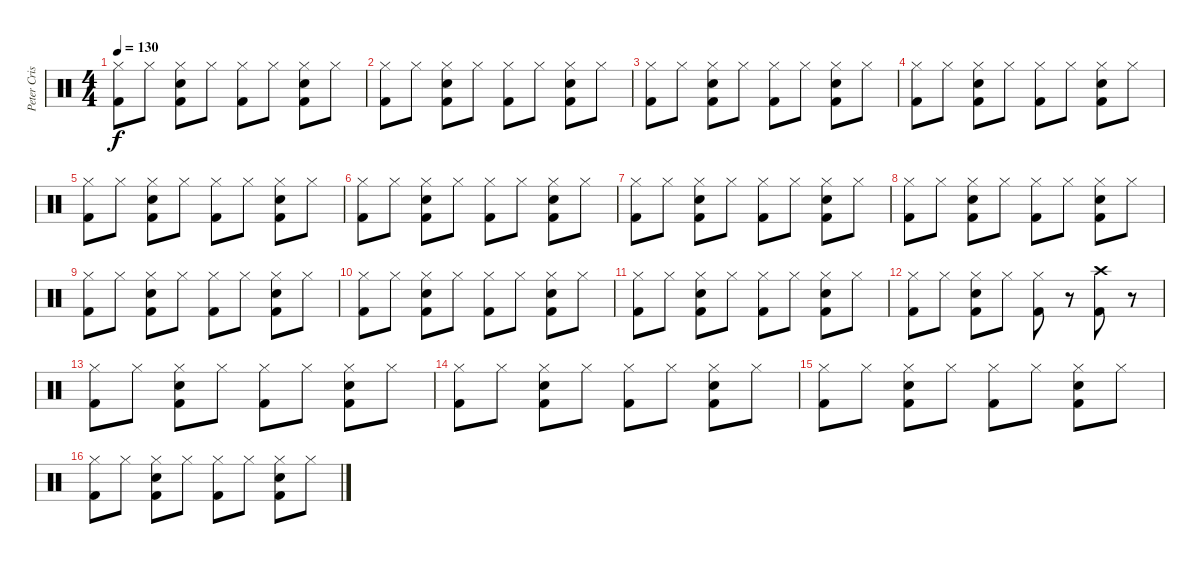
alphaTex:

\track ("Peter Criss" "Peter Cris") {instrument percussion}
\staff {score}
\articulation defaults
\ts (4 4)
\tempo 130
\clef neutral
\ks c
("Hi-Hat (closed)" "Kick (hit) 2").8{dy f} "Hi-Hat (closed)".8 ("Hi-Hat (closed)" "Electric Snare (hit)" "Kick (hit) 2").8 "Hi-Hat (closed)".8 ("Hi-Hat (closed)" "Kick (hit) 2").8 "Hi-Hat (closed)".8 ("Hi-Hat (closed)" "Electric Snare (hit)" "Kick (hit) 2").8 "Hi-Hat (closed)".8 |
("Hi-Hat (closed)" "Kick (hit) 2").8 "Hi-Hat (closed)".8 ("Hi-Hat (closed)" "Electric Snare (hit)" "Kick (hit) 2").8 "Hi-Hat (closed)".8 ("Hi-Hat (closed)" "Kick (hit) 2").8 "Hi-Hat (closed)".8 ("Hi-Hat (closed)" "Electric Snare (hit)" "Kick (hit) 2").8 "Hi-Hat (closed)".8 |
("Hi-Hat (closed)" "Kick (hit) 2").8 "Hi-Hat (closed)".8 ("Hi-Hat (closed)" "Electric Snare (hit)" "Kick (hit) 2").8 "Hi-Hat (closed)".8 ("Hi-Hat (closed)" "Kick (hit) 2").8 "Hi-Hat (closed)".8 ("Hi-Hat (closed)" "Electric Snare (hit)" "Kick (hit) 2").8 "Hi-Hat (closed)".8 |
("Hi-Hat (closed)" "Kick (hit) 2").8 "Hi-Hat (closed)".8 ("Hi-Hat (closed)" "Electric Snare (hit)" "Kick (hit) 2").8 "Hi-Hat (closed)".8 ("Hi-Hat (closed)" "Kick (hit) 2").8 "Hi-Hat (closed)".8 ("Hi-Hat (closed)" "Electric Snare (hit)" "Kick (hit) 2").8 "Hi-Hat (closed)".8 |
("Hi-Hat (closed)" "Kick (hit) 2").8 "Hi-Hat (closed)".8 ("Hi-Hat (closed)" "Electric Snare (hit)" "Kick (hit) 2").8 "Hi-Hat (closed)".8 ("Hi-Hat (closed)" "Kick (hit) 2").8 "Hi-Hat (closed)".8 ("Hi-Hat (closed)" "Electric Snare (hit)" "Kick (hit) 2").8 "Hi-Hat (closed)".8 |
("Hi-Hat (closed)" "Kick (hit) 2").8 "Hi-Hat (closed)".8 ("Hi-Hat (closed)" "Electric Snare (hit)" "Kick (hit) 2").8 "Hi-Hat (closed)".8 ("Hi-Hat (closed)" "Kick (hit) 2").8 "Hi-Hat (closed)".8 ("Hi-Hat (closed)" "Electric Snare (hit)" "Kick (hit) 2").8 "Hi-Hat (closed)".8 |
("Hi-Hat (closed)" "Kick (hit) 2").8 "Hi-Hat (closed)".8 ("Hi-Hat (closed)" "Electric Snare (hit)" "Kick (hit) 2").8 "Hi-Hat (closed)".8 ("Hi-Hat (closed)" "Kick (hit) 2").8 "Hi-Hat (closed)".8 ("Hi-Hat (closed)" "Electric Snare (hit)" "Kick (hit) 2").8 "Hi-Hat (closed)".8 |
("Hi-Hat (closed)" "Kick (hit) 2").8 "Hi-Hat (closed)".8 ("Hi-Hat (closed)" "Electric Snare (hit)" "Kick (hit) 2").8 "Hi-Hat (closed)".8 ("Hi-Hat (closed)" "Kick (hit) 2").8 "Hi-Hat (closed)".8 ("Hi-Hat (closed)" "Electric Snare (hit)" "Kick (hit) 2").8 "Hi-Hat (closed)".8 |
("Hi-Hat (closed)" "Kick (hit) 2").8 "Hi-Hat (closed)".8 ("Hi-Hat (closed)" "Electric Snare (hit)" "Kick (hit) 2").8 "Hi-Hat (closed)".8 ("Hi-Hat (closed)" "Kick (hit) 2").8 "Hi-Hat (closed)".8 ("Hi-Hat (closed)" "Electric Snare (hit)" "Kick (hit) 2").8 "Hi-Hat (closed)".8 |
("Hi-Hat (closed)" "Kick (hit) 2").8 "Hi-Hat (closed)".8 ("Hi-Hat (closed)" "Electric Snare (hit)" "Kick (hit) 2").8 "Hi-Hat (closed)".8 ("Hi-Hat (closed)" "Kick (hit) 2").8 "Hi-Hat (closed)".8 ("Hi-Hat (closed)" "Electric Snare (hit)" "Kick (hit) 2").8 "Hi-Hat (closed)".8 |
("Hi-Hat (closed)" "Kick (hit) 2").8 "Hi-Hat (closed)".8 ("Hi-Hat (closed)" "Electric Snare (hit)" "Kick (hit) 2").8 "Hi-Hat (closed)".8 ("Hi-Hat (closed)" "Kick (hit) 2").8 "Hi-Hat (closed)".8 ("Hi-Hat (closed)" "Electric Snare (hit)" "Kick (hit) 2").8 "Hi-Hat (closed)".8 |
("Hi-Hat (closed)" "Kick (hit) 2").8 "Hi-Hat (closed)".8 ("Hi-Hat (closed)" "Electric Snare (hit)" "Kick (hit) 2").8 "Hi-Hat (closed)".8 ("Hi-Hat (closed)" "Kick (hit) 2").8 r.8 ("Crash high (hit)" "Kick (hit) 2").8 r.8 |
("Hi-Hat (closed)" "Kick (hit) 2").8 "Hi-Hat (closed)".8 ("Hi-Hat (closed)" "Electric Snare (hit)" "Kick (hit) 2").8 "Hi-Hat (closed)".8 ("Hi-Hat (closed)" "Kick (hit) 2").8 "Hi-Hat (closed)".8 ("Hi-Hat (closed)" "Electric Snare (hit)" "Kick (hit) 2").8 "Hi-Hat (closed)".8 |
("Hi-Hat (closed)" "Kick (hit) 2").8 "Hi-Hat (closed)".8 ("Hi-Hat (closed)" "Electric Snare (hit)" "Kick (hit) 2").8 "Hi-Hat (closed)".8 ("Hi-Hat (closed)" "Kick (hit) 2").8 "Hi-Hat (closed)".8 ("Hi-Hat (closed)" "Electric Snare (hit)" "Kick (hit) 2").8 "Hi-Hat (closed)".8 |
("Hi-Hat (closed)" "Kick (hit) 2").8 "Hi-Hat (closed)".8 ("Hi-Hat (closed)" "Electric Snare (hit)" "Kick (hit) 2").8 "Hi-Hat (closed)".8 ("Hi-Hat (closed)" "Kick (hit) 2").8 "Hi-Hat (closed)".8 ("Hi-Hat (closed)" "Electric Snare (hit)" "Kick (hit) 2").8 "Hi-Hat (closed)".8 |
("Hi-Hat (closed)" "Kick (hit) 2").8 "Hi-Hat (closed)".8 ("Hi-Hat (closed)" "Electric Snare (hit)" "Kick (hit) 2").8 "Hi-Hat (closed)".8 ("Hi-Hat (closed)" "Kick (hit) 2").8 "Hi-Hat (closed)".8 ("Hi-Hat (closed)" "Electric Snare (hit)" "Kick (hit) 2").8 "Hi-Hat (closed)".8
